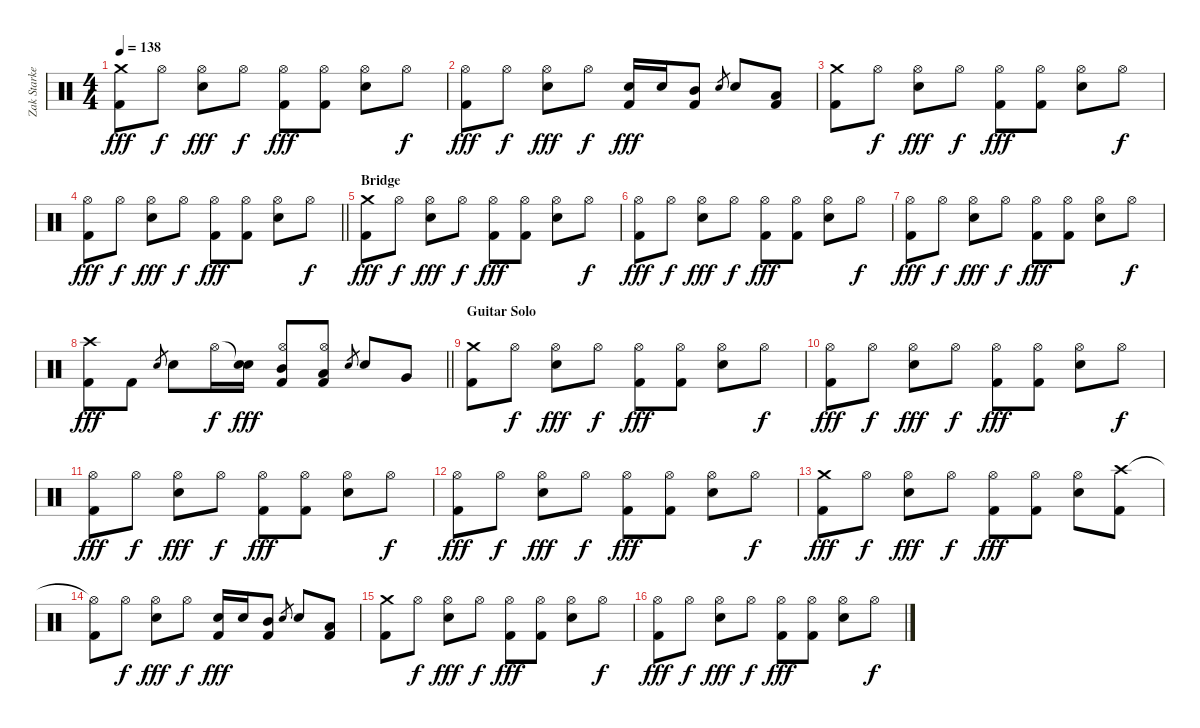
\track ("Zak Starkey" "Zak Starke") {instrument percussion}
\staff {score}
\articulation defaults
\ts (4 4)
\tempo 138
\clef neutral
\ks c
("Crash medium (hit)" "Kick (hit) 2").8{dy fff} "Hi-Hat (open)".8{dy f} ("Hi-Hat (open)" "Snare (hit) 2").8{dy fff} "Hi-Hat (open)".8{dy f} ("Hi-Hat (open)" "Kick (hit) 2").8{dy fff} ("Hi-Hat (open)" "Kick (hit) 2").8 ("Hi-Hat (open)" "Snare (hit) 2").8 "Hi-Hat (open)".8{dy f} |
("Hi-Hat (open)" "Kick (hit) 2").8{dy fff} "Hi-Hat (open)".8{dy f} ("Hi-Hat (open)" "Snare (hit) 2").8{dy fff} "Hi-Hat (open)".8{dy f} ("Snare (hit) 2" "Kick (hit) 2").16{dy fff} "Snare (hit) 2".16 ("Mid Tom (hit)" "Kick (hit) 2").8 "Snare (hit) 2".8{gr} "Snare (hit) 2".8 ("Low Tom (hit)" "Kick (hit) 2").8 |
("Crash medium (hit)" "Kick (hit) 2").8 "Hi-Hat (open)".8{dy f} ("Hi-Hat (open)" "Snare (hit) 2").8{dy fff} "Hi-Hat (open)".8{dy f} ("Hi-Hat (open)" "Kick (hit) 2").8{dy fff} ("Hi-Hat (open)" "Kick (hit) 2").8 ("Hi-Hat (open)" "Snare (hit) 2").8 "Hi-Hat (open)".8{dy f} |
\barLineRight lightlight
("Hi-Hat (open)" "Kick (hit) 2").8{dy fff} "Hi-Hat (open)".8{dy f} ("Hi-Hat (open)" "Snare (hit) 2").8{dy fff} "Hi-Hat (open)".8{dy f} ("Hi-Hat (open)" "Kick (hit) 2").8{dy fff} ("Hi-Hat (open)" "Kick (hit) 2").8 ("Hi-Hat (open)" "Snare (hit) 2").8 "Hi-Hat (open)".8{dy f} |
\section ("" "Bridge")
("Crash medium (hit)" "Kick (hit) 2").8{dy fff} "Hi-Hat (open)".8{dy f} ("Hi-Hat (open)" "Snare (hit) 2").8{dy fff} "Hi-Hat (open)".8{dy f} ("Hi-Hat (open)" "Kick (hit) 2").8{dy fff} ("Hi-Hat (open)" "Kick (hit) 2").8 ("Hi-Hat (open)" "Snare (hit) 2").8 "Hi-Hat (open)".8{dy f} |
("Hi-Hat (open)" "Kick (hit) 2").8{dy fff} "Hi-Hat (open)".8{dy f} ("Hi-Hat (open)" "Snare (hit) 2").8{dy fff} "Hi-Hat (open)".8{dy f} ("Hi-Hat (open)" "Kick (hit) 2").8{dy fff} ("Hi-Hat (open)" "Kick (hit) 2").8 ("Hi-Hat (open)" "Snare (hit) 2").8 "Hi-Hat (open)".8{dy f} |
("Hi-Hat (open)" "Kick (hit) 2").8{dy fff} "Hi-Hat (open)".8{dy f} ("Hi-Hat (open)" "Snare (hit) 2").8{dy fff} "Hi-Hat (open)".8{dy f} ("Hi-Hat (open)" "Kick (hit) 2").8{dy fff} ("Hi-Hat (open)" "Kick (hit) 2").8 ("Hi-Hat (open)" "Snare (hit) 2").8 "Hi-Hat (open)".8{dy f} |
\barLineRight lightlight
("Crash high (hit)" "Kick (hit) 2").8{dy fff} "Kick (hit) 2".8 "Snare (hit) 2".8{gr} "Snare (hit) 2".8 "Hi-Hat (open)".16{dy f} ("Snare (hit)"{t} "Snare (hit) 2").16{dy fff} ("Hi-Hat (open)" "Mid Tom (hit)" "Kick (hit) 2").8 ("Hi-Hat (open)" "Low Tom (hit)" "Kick (hit) 2").8 "Snare (hit) 2".8{gr} "Snare (hit) 2".8 "Very Low Tom (hit)".8 |
\section ("" "Guitar Solo")
("Crash medium (hit)" "Kick (hit) 2").8 "Hi-Hat (open)".8{dy f} ("Hi-Hat (open)" "Snare (hit) 2").8{dy fff} "Hi-Hat (open)".8{dy f} ("Hi-Hat (open)" "Kick (hit) 2").8{dy fff} ("Hi-Hat (open)" "Kick (hit) 2").8 ("Hi-Hat (open)" "Snare (hit) 2").8 "Hi-Hat (open)".8{dy f} |
("Hi-Hat (open)" "Kick (hit) 2").8{dy fff} "Hi-Hat (open)".8{dy f} ("Hi-Hat (open)" "Snare (hit) 2").8{dy fff} "Hi-Hat (open)".8{dy f} ("Hi-Hat (open)" "Kick (hit) 2").8{dy fff} ("Hi-Hat (open)" "Kick (hit) 2").8 ("Hi-Hat (open)" "Snare (hit) 2").8 "Hi-Hat (open)".8{dy f} |
("Hi-Hat (open)" "Kick (hit) 2").8{dy fff} "Hi-Hat (open)".8{dy f} ("Hi-Hat (open)" "Snare (hit) 2").8{dy fff} "Hi-Hat (open)".8{dy f} ("Hi-Hat (open)" "Kick (hit) 2").8{dy fff} ("Hi-Hat (open)" "Kick (hit) 2").8 ("Hi-Hat (open)" "Snare (hit) 2").8 "Hi-Hat (open)".8{dy f} |
("Hi-Hat (open)" "Kick (hit) 2").8{dy fff} "Hi-Hat (open)".8{dy f} ("Hi-Hat (open)" "Snare (hit) 2").8{dy fff} "Hi-Hat (open)".8{dy f} ("Hi-Hat (open)" "Kick (hit) 2").8{dy fff} ("Hi-Hat (open)" "Kick (hit) 2").8 ("Hi-Hat (open)" "Snare (hit) 2").8 "Hi-Hat (open)".8{dy f} |
("Crash medium (hit)" "Kick (hit) 2").8{dy fff} "Hi-Hat (open)".8{dy f} ("Hi-Hat (open)" "Snare (hit) 2").8{dy fff} "Hi-Hat (open)".8{dy f} ("Hi-Hat (open)" "Kick (hit) 2").8{dy fff} ("Hi-Hat (open)" "Kick (hit) 2").8 ("Hi-Hat (open)" "Snare (hit) 2").8 ("Crash high (hit)" "Kick (hit) 2").8 |
("Hi-Hat (open)"{t} "Kick (hit) 2").8 "Hi-Hat (open)".8{dy f} ("Hi-Hat (open)" "Snare (hit) 2").8{dy fff} "Hi-Hat (open)".8{dy f} ("Snare (hit) 2" "Kick (hit) 2").16{dy fff} "Snare (hit) 2".16 ("Mid Tom (hit)" "Kick (hit) 2").8 "Snare (hit) 2".8{gr} "Snare (hit) 2".8 ("Low Tom (hit)" "Kick (hit) 2").8 |
("Crash medium (hit)" "Kick (hit) 2").8 "Hi-Hat (open)".8{dy f} ("Hi-Hat (open)" "Snare (hit) 2").8{dy fff} "Hi-Hat (open)".8{dy f} ("Hi-Hat (open)" "Kick (hit) 2").8{dy fff} ("Hi-Hat (open)" "Kick (hit) 2").8 ("Hi-Hat (open)" "Snare (hit) 2").8 "Hi-Hat (open)".8{dy f} |
("Hi-Hat (open)" "Kick (hit) 2").8{dy fff} "Hi-Hat (open)".8{dy f} ("Hi-Hat (open)" "Snare (hit) 2").8{dy fff} "Hi-Hat (open)".8{dy f} ("Hi-Hat (open)" "Kick (hit) 2").8{dy fff} ("Hi-Hat (open)" "Kick (hit) 2").8 ("Hi-Hat (open)" "Snare (hit) 2").8 "Hi-Hat (open)".8{dy f}
